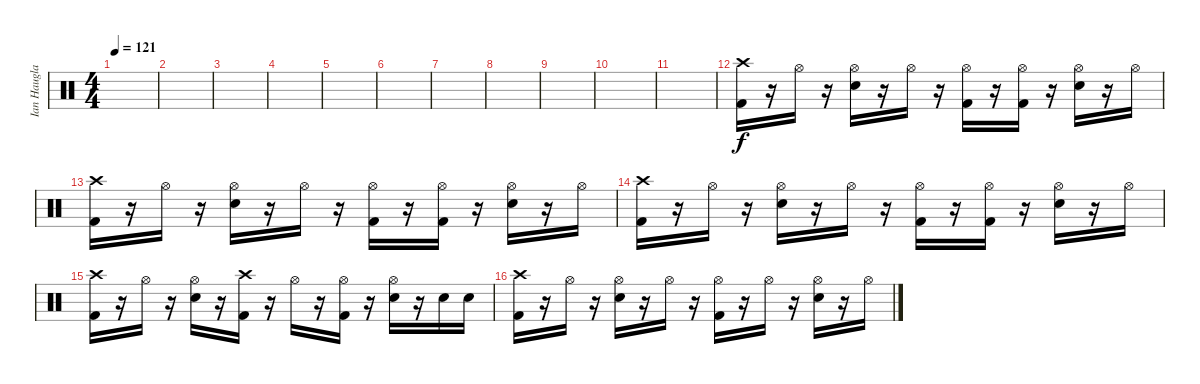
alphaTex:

\track ("Ian Haugland" "Ian Haugla") {instrument percussion}
\staff {score}
\articulation defaults
\ts (4 4)
\tempo 121
\clef neutral
\ks c
|
|
|
|
|
|
|
|
|
|
|
("Crash high (hit)" "Kick (hit) 2").16 r.16 "Hi-Hat (open)".16 r.16 ("Hi-Hat (open)" "Electric Snare (hit)").16 r.16 "Hi-Hat (open)".16 r.16 ("Hi-Hat (open)" "Kick (hit) 2").16 r.16 ("Hi-Hat (open)" "Kick (hit) 2").16 r.16 ("Hi-Hat (open)" "Electric Snare (hit)").16 r.16 "Hi-Hat (open)".16 |
("Crash high (hit)" "Kick (hit) 2").16 r.16 "Hi-Hat (open)".16 r.16 ("Hi-Hat (open)" "Electric Snare (hit)").16 r.16 "Hi-Hat (open)".16 r.16 ("Hi-Hat (open)" "Kick (hit) 2").16 r.16 ("Hi-Hat (open)" "Kick (hit) 2").16 r.16 ("Hi-Hat (open)" "Electric Snare (hit)").16 r.16 "Hi-Hat (open)".16 |
("Crash high (hit)" "Kick (hit) 2").16 r.16 "Hi-Hat (open)".16 r.16 ("Hi-Hat (open)" "Electric Snare (hit)").16 r.16 "Hi-Hat (open)".16 r.16 ("Hi-Hat (open)" "Kick (hit) 2").16 r.16 ("Hi-Hat (open)" "Kick (hit) 2").16 r.16 ("Hi-Hat (open)" "Electric Snare (hit)").16 r.16 "Hi-Hat (open)".16 |
("Crash high (hit)" "Kick (hit) 2").16 r.16 "Hi-Hat (open)".16 r.16 ("Hi-Hat (open)" "Electric Snare (hit)").16 r.16 ("Crash high (hit)" "Kick (hit) 2").16 r.16 "Hi-Hat (open)".16 r.16 ("Hi-Hat (open)" "Kick (hit) 2").16 r.16 ("Hi-Hat (open)" "Electric Snare (hit)").16 r.16 "Electric Snare (hit)".16 "Electric Snare (hit)".16 |
("Crash high (hit)" "Kick (hit) 2").16 r.16 "Hi-Hat (open)".16 r.16 ("Hi-Hat (open)" "Electric Snare (hit)").16 r.16 "Hi-Hat (open)".16 r.16 ("Hi-Hat (open)" "Kick (hit) 2").16 r.16 "Hi-Hat (open)".16 r.16 ("Hi-Hat (open)" "Electric Snare (hit)").16 r.16 "Hi-Hat (open)".16
